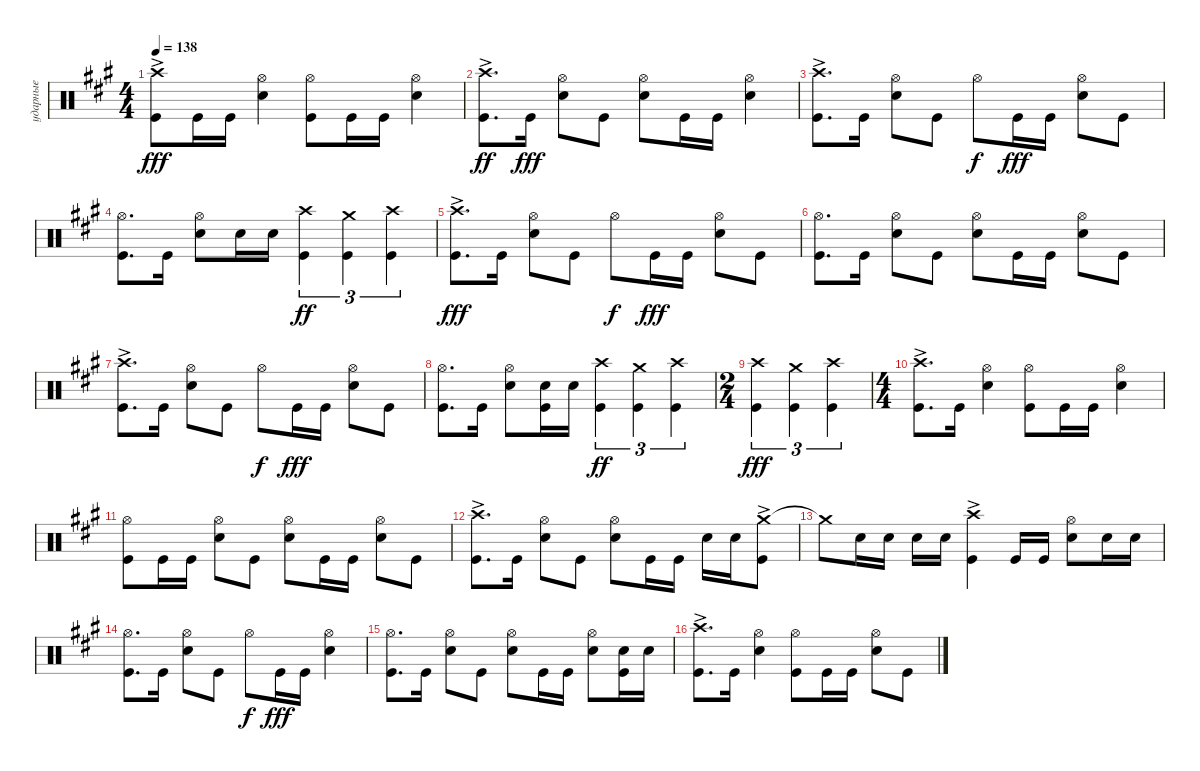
\track ("ударные" "ударные") {instrument percussion}
\staff {score}
\articulation defaults
\ts (4 4)
\tempo 138
\clef neutral
\ks f#minor
("Kick (hit)" "Crash high (hit)"{ac}).8{dy fff} "Kick (hit)".16 "Kick (hit)".16 ("Snare (hit) 2" "Hi-Hat (open)").4 ("Hi-Hat (open)" "Kick (hit)").8 "Kick (hit)".16 "Kick (hit)".16 ("Snare (hit) 2" "Hi-Hat (open)").4 |
("Kick (hit)" "Crash high (hit)"{ac}).8{d dy ff} "Kick (hit)".16{dy fff} ("Snare (hit) 2" "Hi-Hat (open)").8 "Kick (hit)".8 ("Hi-Hat (open)" "Snare (hit) 2").8 "Kick (hit)".16 "Kick (hit)".16 ("Snare (hit) 2" "Hi-Hat (open)").4 |
("Kick (hit)" "Crash high (hit)"{ac}).8{d} "Kick (hit)".16 ("Snare (hit) 2" "Hi-Hat (open)").8 "Kick (hit)".8 "Hi-Hat (open)".8{dy f} "Kick (hit)".16{dy fff} "Kick (hit)".16 ("Snare (hit) 2" "Hi-Hat (open)").8 "Kick (hit)".8 |
("Hi-Hat (open)" "Kick (hit)").8{d} "Kick (hit)".16 ("Snare (hit) 2" "Hi-Hat (open)").8 "Snare (hit) 2".16 "Snare (hit) 2".16 ("Kick (hit)" "Crash high (hit)").4{tu (3 2) dy ff} ("Kick (hit)" "Crash medium (hit)").4{tu (3 2)} ("Kick (hit)" "Crash high (hit)").4{tu (3 2)} |
("Kick (hit)" "Crash high (hit)"{ac}).8{d dy fff} "Kick (hit)".16 ("Snare (hit) 2" "Hi-Hat (open)").8 "Kick (hit)".8 "Hi-Hat (open)".8{dy f} "Kick (hit)".16{dy fff} "Kick (hit)".16 ("Snare (hit) 2" "Hi-Hat (open)").8 "Kick (hit)".8 |
("Kick (hit)" "Hi-Hat (open)").8{d} "Kick (hit)".16 ("Snare (hit) 2" "Hi-Hat (open)").8 "Kick (hit)".8 ("Hi-Hat (open)" "Snare (hit) 2").8 "Kick (hit)".16 "Kick (hit)".16 ("Snare (hit) 2" "Hi-Hat (open)").8 "Kick (hit)".8 |
("Kick (hit)" "Crash high (hit)"{ac}).8{d} "Kick (hit)".16 ("Snare (hit) 2" "Hi-Hat (open)").8 "Kick (hit)".8 "Hi-Hat (open)".8{dy f} "Kick (hit)".16{dy fff} "Kick (hit)".16 ("Snare (hit) 2" "Hi-Hat (open)").8 "Kick (hit)".8 |
("Hi-Hat (open)" "Kick (hit)").8{d} "Kick (hit)".16 ("Snare (hit) 2" "Hi-Hat (open)").8 ("Snare (hit) 2" "Kick (hit)").16 "Snare (hit) 2".16 ("Kick (hit)" "Crash high (hit)").4{tu (3 2) dy ff} ("Kick (hit)" "Crash medium (hit)").4{tu (3 2)} ("Kick (hit)" "Crash high (hit)").4{tu (3 2)} |
\ts (2 4)
("Kick (hit)" "Crash high (hit)").4{tu (3 2) dy fff} ("Kick (hit)" "Crash medium (hit)").4{tu (3 2)} ("Kick (hit)" "Crash high (hit)").4{tu (3 2)} |
\ts (4 4)
("Kick (hit)" "Crash high (hit)"{ac}).8{d} "Kick (hit)".16 ("Snare (hit) 2" "Hi-Hat (open)").4 ("Hi-Hat (open)" "Kick (hit)").8 "Kick (hit)".16 "Kick (hit)".16 ("Snare (hit) 2" "Hi-Hat (open)").4 |
("Kick (hit)" "Hi-Hat (open)").8 "Kick (hit)".16 "Kick (hit)".16 ("Snare (hit) 2" "Hi-Hat (open)").8 "Kick (hit)".8 ("Snare (hit) 2" "Hi-Hat (open)").8 "Kick (hit)".16 "Kick (hit)".16 ("Snare (hit) 2" "Hi-Hat (open)").8 "Kick (hit)".8 |
("Kick (hit)" "Crash high (hit)"{ac}).8{d} "Kick (hit)".16 ("Snare (hit) 2" "Hi-Hat (open)").8 "Kick (hit)".8 ("Hi-Hat (open)" "Snare (hit) 2").8 "Kick (hit)".16 "Kick (hit)".16 "Snare (hit) 2".16 "Snare (hit) 2".16 ("Crash medium (hit)"{ac} "Kick (hit)").8 |
"Crash medium (hit)"{t}.8 "Snare (hit) 2".16 "Snare (hit) 2".16 "Snare (hit) 2".16 "Snare (hit) 2".16 ("Kick (hit)" "Crash high (hit)"{ac}).4 "Kick (hit)".16 "Kick (hit)".16 ("Snare (hit) 2" "Hi-Hat (open)").8 "Snare (hit) 2".16 "Snare (hit) 2".16 |
("Kick (hit)" "Hi-Hat (open)").8{d} "Kick (hit)".16 ("Snare (hit) 2" "Hi-Hat (open)").8 "Kick (hit)".8 "Hi-Hat (open)".8{dy f} "Kick (hit)".16{dy fff} "Kick (hit)".16 ("Snare (hit) 2" "Hi-Hat (open)").4 |
("Kick (hit)" "Hi-Hat (open)").8{d} "Kick (hit)".16 ("Snare (hit) 2" "Hi-Hat (open)").8 "Kick (hit)".8 ("Hi-Hat (open)" "Snare (hit) 2").8 "Kick (hit)".16 "Kick (hit)".16 ("Snare (hit) 2" "Hi-Hat (open)").8 ("Snare (hit) 2" "Kick (hit)").16 "Snare (hit) 2".16 |
("Kick (hit)" "Crash high (hit)"{ac}).8{d} "Kick (hit)".16 ("Snare (hit) 2" "Hi-Hat (open)").4 ("Hi-Hat (open)" "Kick (hit)").8 "Kick (hit)".16 "Kick (hit)".16 ("Snare (hit) 2" "Hi-Hat (open)").8 "Kick (hit)".8
